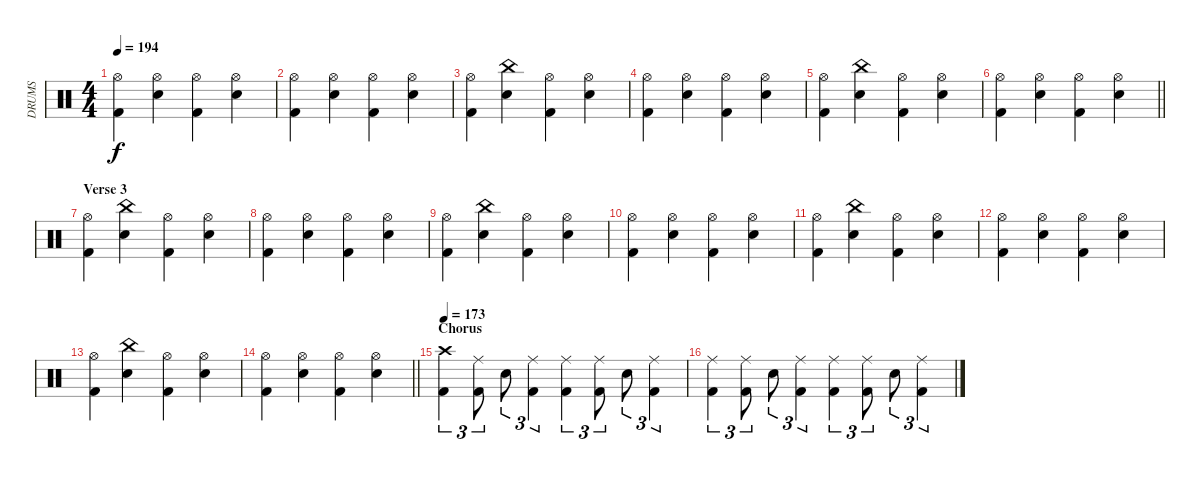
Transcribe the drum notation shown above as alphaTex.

\track ("DRUMS" "DRUMS") {instrument percussion}
\staff {score}
\articulation defaults
\ts (4 4)
\tempo 194
\clef neutral
\ks c
("Hi-Hat (open)" "Kick (hit) 2").4{dy f} ("Hi-Hat (open)" "Snare (hit) 2").4 ("Hi-Hat (open)" "Kick (hit) 2").4 ("Hi-Hat (open)" "Snare (hit) 2").4 |
("Hi-Hat (open)" "Kick (hit) 2").4 ("Hi-Hat (open)" "Snare (hit) 2").4 ("Hi-Hat (open)" "Kick (hit) 2").4 ("Hi-Hat (open)" "Snare (hit) 2").4 |
("Hi-Hat (open)" "Kick (hit) 2").4 ("China (hit)" "Snare (hit) 2").4 ("Hi-Hat (open)" "Kick (hit) 2").4 ("Hi-Hat (open)" "Snare (hit) 2").4 |
("Hi-Hat (open)" "Kick (hit) 2").4 ("Hi-Hat (open)" "Snare (hit) 2").4 ("Hi-Hat (open)" "Kick (hit) 2").4 ("Hi-Hat (open)" "Snare (hit) 2").4 |
("Hi-Hat (open)" "Kick (hit) 2").4 ("China (hit)" "Snare (hit) 2").4 ("Hi-Hat (open)" "Kick (hit) 2").4 ("Hi-Hat (open)" "Snare (hit) 2").4 |
\barLineRight lightlight
("Hi-Hat (open)" "Kick (hit) 2").4 ("Hi-Hat (open)" "Snare (hit) 2").4 ("Hi-Hat (open)" "Kick (hit) 2").4 ("Hi-Hat (open)" "Snare (hit) 2").4 |
\section ("" "Verse 3")
("Hi-Hat (open)" "Kick (hit) 2").4 ("China (hit)" "Snare (hit) 2").4 ("Hi-Hat (open)" "Kick (hit) 2").4 ("Hi-Hat (open)" "Snare (hit) 2").4 |
("Hi-Hat (open)" "Kick (hit) 2").4 ("Hi-Hat (open)" "Snare (hit) 2").4 ("Hi-Hat (open)" "Kick (hit) 2").4 ("Hi-Hat (open)" "Snare (hit) 2").4 |
("Hi-Hat (open)" "Kick (hit) 2").4 ("China (hit)" "Snare (hit) 2").4 ("Hi-Hat (open)" "Kick (hit) 2").4 ("Hi-Hat (open)" "Snare (hit) 2").4 |
("Hi-Hat (open)" "Kick (hit) 2").4 ("Hi-Hat (open)" "Snare (hit) 2").4 ("Hi-Hat (open)" "Kick (hit) 2").4 ("Hi-Hat (open)" "Snare (hit) 2").4 |
("Hi-Hat (open)" "Kick (hit) 2").4 ("China (hit)" "Snare (hit) 2").4 ("Hi-Hat (open)" "Kick (hit) 2").4 ("Hi-Hat (open)" "Snare (hit) 2").4 |
("Hi-Hat (open)" "Kick (hit) 2").4 ("Hi-Hat (open)" "Snare (hit) 2").4 ("Hi-Hat (open)" "Kick (hit) 2").4 ("Hi-Hat (open)" "Snare (hit) 2").4 |
("Hi-Hat (open)" "Kick (hit) 2").4 ("China (hit)" "Snare (hit) 2").4 ("Hi-Hat (open)" "Kick (hit) 2").4 ("Hi-Hat (open)" "Snare (hit) 2").4 |
\barLineRight lightlight
("Hi-Hat (open)" "Kick (hit) 2").4 ("Hi-Hat (open)" "Snare (hit) 2").4 ("Hi-Hat (open)" "Kick (hit) 2").4 ("Hi-Hat (open)" "Snare (hit) 2").4 |
\section ("" "Chorus")
\tempo 173
("Crash high (hit)" "Kick (hit) 2").4{tu (3 2)} ("Ride (middle)" "Kick (hit) 2").8{tu (3 2)} "Snare (hit) 2".8{tu (3 2)} ("Ride (middle)" "Kick (hit) 2").4{tu (3 2)} ("Ride (middle)" "Kick (hit) 2").4{tu (3 2)} ("Ride (middle)" "Kick (hit) 2").8{tu (3 2)} "Snare (hit) 2".8{tu (3 2)} ("Ride (middle)" "Kick (hit) 2").4{tu (3 2)} |
("Ride (middle)" "Kick (hit) 2").4{tu (3 2)} ("Ride (middle)" "Kick (hit) 2").8{tu (3 2)} "Snare (hit) 2".8{tu (3 2)} ("Ride (middle)" "Kick (hit) 2").4{tu (3 2)} ("Ride (middle)" "Kick (hit) 2").4{tu (3 2)} ("Ride (middle)" "Kick (hit) 2").8{tu (3 2)} "Snare (hit) 2".8{tu (3 2)} ("Ride (middle)" "Kick (hit) 2").4{tu (3 2)}
